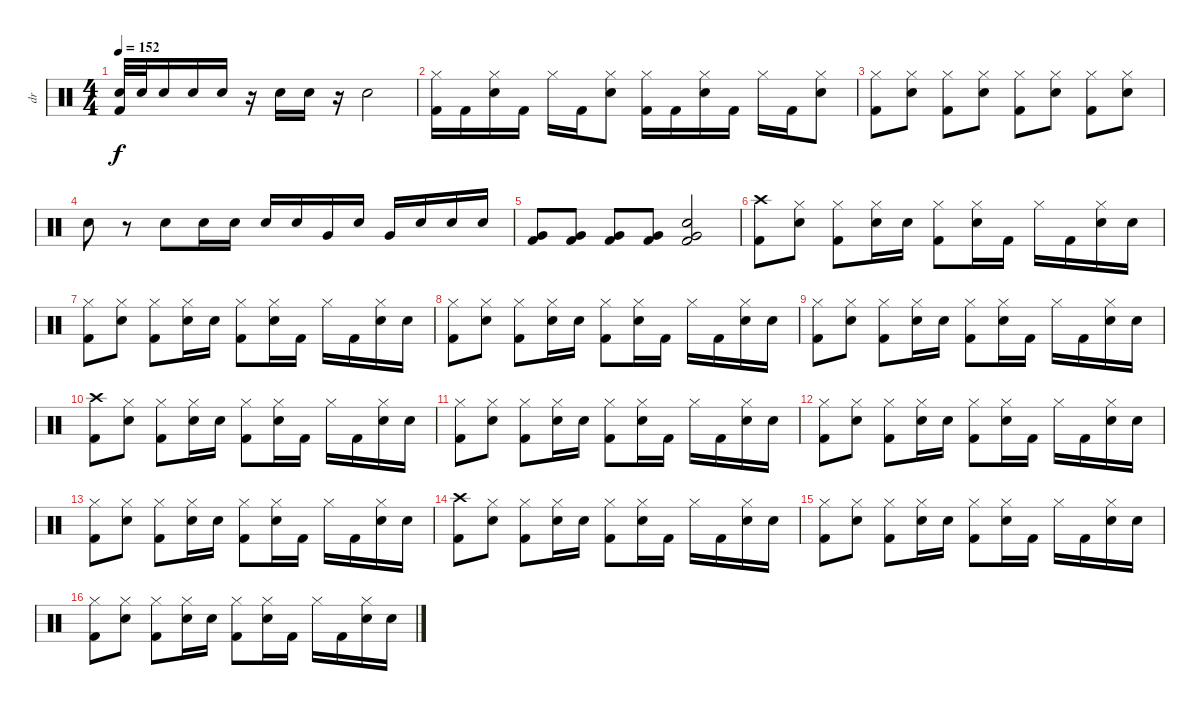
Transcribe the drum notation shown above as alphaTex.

\track ("dr" "dr") {instrument percussion}
\staff {score}
\articulation defaults
\ts (4 4)
\tempo 152
\clef neutral
\ks c
("Electric Snare (hit)" "Kick (hit) 2").32{dy f} "Electric Snare (hit)".32 "Electric Snare (hit)".16 "Electric Snare (hit)".16 "Electric Snare (hit)".16 r.16 "Electric Snare (hit)".16 "Electric Snare (hit)".16 r.16 "Electric Snare (hit)".2 |
("Hi-Hat (closed)" "Kick (hit) 2").16 "Kick (hit) 2".16 ("Hi-Hat (closed)" "Electric Snare (hit)").16 "Kick (hit) 2".16 "Hi-Hat (closed)".16 "Kick (hit) 2".16 ("Hi-Hat (closed)" "Electric Snare (hit)").8 ("Hi-Hat (closed)" "Kick (hit) 2").16 "Kick (hit) 2".16 ("Hi-Hat (closed)" "Electric Snare (hit)").16 "Kick (hit) 2".16 "Hi-Hat (closed)".16 "Kick (hit) 2".16 ("Hi-Hat (closed)" "Electric Snare (hit)").8 |
("Hi-Hat (closed)" "Kick (hit) 2").8 ("Hi-Hat (closed)" "Electric Snare (hit)").8 ("Hi-Hat (closed)" "Kick (hit) 2").8 ("Hi-Hat (closed)" "Electric Snare (hit)").8 ("Hi-Hat (closed)" "Kick (hit) 2").8 ("Hi-Hat (closed)" "Electric Snare (hit)").8 ("Hi-Hat (closed)" "Kick (hit) 2").8 ("Hi-Hat (closed)" "Electric Snare (hit)").8 |
"Electric Snare (hit)".8 r.8 "Electric Snare (hit)".8 "Electric Snare (hit)".16 "Electric Snare (hit)".16 "Electric Snare (hit)".16 "Electric Snare (hit)".16 "Very Low Tom (hit)".16 "Electric Snare (hit)".16 "Very Low Tom (hit)".16 "Electric Snare (hit)".16 "Electric Snare (hit)".16 "Electric Snare (hit)".16 |
("Very Low Tom (hit)" "Kick (hit) 2").8 ("Very Low Tom (hit)" "Kick (hit) 2").8 ("Very Low Tom (hit)" "Kick (hit) 2").8 ("Very Low Tom (hit)" "Kick (hit) 2").8 ("Kick (hit) 2" "Very Low Tom (hit)" "Electric Snare (hit)").2 |
("Crash high (hit)" "Kick (hit) 2").8 ("Hi-Hat (closed)" "Electric Snare (hit)").8 ("Hi-Hat (closed)" "Kick (hit) 2").8 ("Hi-Hat (closed)" "Electric Snare (hit)").16 "Electric Snare (hit)".16 ("Hi-Hat (closed)" "Kick (hit) 2").8 ("Hi-Hat (closed)" "Electric Snare (hit)").16 "Kick (hit) 2".16 "Hi-Hat (closed)".16 "Kick (hit) 2".16 ("Hi-Hat (closed)" "Electric Snare (hit)").16 "Electric Snare (hit)".16 |
("Hi-Hat (closed)" "Kick (hit) 2").8 ("Hi-Hat (closed)" "Electric Snare (hit)").8 ("Hi-Hat (closed)" "Kick (hit) 2").8 ("Hi-Hat (closed)" "Electric Snare (hit)").16 "Electric Snare (hit)".16 ("Hi-Hat (closed)" "Kick (hit) 2").8 ("Hi-Hat (closed)" "Electric Snare (hit)").16 "Kick (hit) 2".16 "Hi-Hat (closed)".16 "Kick (hit) 2".16 ("Hi-Hat (closed)" "Electric Snare (hit)").16 "Electric Snare (hit)".16 |
("Hi-Hat (closed)" "Kick (hit) 2").8 ("Hi-Hat (closed)" "Electric Snare (hit)").8 ("Hi-Hat (closed)" "Kick (hit) 2").8 ("Hi-Hat (closed)" "Electric Snare (hit)").16 "Electric Snare (hit)".16 ("Hi-Hat (closed)" "Kick (hit) 2").8 ("Hi-Hat (closed)" "Electric Snare (hit)").16 "Kick (hit) 2".16 "Hi-Hat (closed)".16 "Kick (hit) 2".16 ("Hi-Hat (closed)" "Electric Snare (hit)").16 "Electric Snare (hit)".16 |
("Hi-Hat (closed)" "Kick (hit) 2").8 ("Hi-Hat (closed)" "Electric Snare (hit)").8 ("Hi-Hat (closed)" "Kick (hit) 2").8 ("Hi-Hat (closed)" "Electric Snare (hit)").16 "Electric Snare (hit)".16 ("Hi-Hat (closed)" "Kick (hit) 2").8 ("Hi-Hat (closed)" "Electric Snare (hit)").16 "Kick (hit) 2".16 "Hi-Hat (closed)".16 "Kick (hit) 2".16 ("Hi-Hat (closed)" "Electric Snare (hit)").16 "Electric Snare (hit)".16 |
("Crash high (hit)" "Kick (hit) 2").8 ("Hi-Hat (closed)" "Electric Snare (hit)").8 ("Hi-Hat (closed)" "Kick (hit) 2").8 ("Hi-Hat (closed)" "Electric Snare (hit)").16 "Electric Snare (hit)".16 ("Hi-Hat (closed)" "Kick (hit) 2").8 ("Hi-Hat (closed)" "Electric Snare (hit)").16 "Kick (hit) 2".16 "Hi-Hat (closed)".16 "Kick (hit) 2".16 ("Hi-Hat (closed)" "Electric Snare (hit)").16 "Electric Snare (hit)".16 |
("Hi-Hat (closed)" "Kick (hit) 2").8 ("Hi-Hat (closed)" "Electric Snare (hit)").8 ("Hi-Hat (closed)" "Kick (hit) 2").8 ("Hi-Hat (closed)" "Electric Snare (hit)").16 "Electric Snare (hit)".16 ("Hi-Hat (closed)" "Kick (hit) 2").8 ("Hi-Hat (closed)" "Electric Snare (hit)").16 "Kick (hit) 2".16 "Hi-Hat (closed)".16 "Kick (hit) 2".16 ("Hi-Hat (closed)" "Electric Snare (hit)").16 "Electric Snare (hit)".16 |
("Hi-Hat (closed)" "Kick (hit) 2").8 ("Hi-Hat (closed)" "Electric Snare (hit)").8 ("Hi-Hat (closed)" "Kick (hit) 2").8 ("Hi-Hat (closed)" "Electric Snare (hit)").16 "Electric Snare (hit)".16 ("Hi-Hat (closed)" "Kick (hit) 2").8 ("Hi-Hat (closed)" "Electric Snare (hit)").16 "Kick (hit) 2".16 "Hi-Hat (closed)".16 "Kick (hit) 2".16 ("Hi-Hat (closed)" "Electric Snare (hit)").16 "Electric Snare (hit)".16 |
("Hi-Hat (closed)" "Kick (hit) 2").8 ("Hi-Hat (closed)" "Electric Snare (hit)").8 ("Hi-Hat (closed)" "Kick (hit) 2").8 ("Hi-Hat (closed)" "Electric Snare (hit)").16 "Electric Snare (hit)".16 ("Hi-Hat (closed)" "Kick (hit) 2").8 ("Hi-Hat (closed)" "Electric Snare (hit)").16 "Kick (hit) 2".16 "Hi-Hat (closed)".16 "Kick (hit) 2".16 ("Hi-Hat (closed)" "Electric Snare (hit)").16 "Electric Snare (hit)".16 |
("Crash high (hit)" "Kick (hit) 2").8 ("Hi-Hat (closed)" "Electric Snare (hit)").8 ("Hi-Hat (closed)" "Kick (hit) 2").8 ("Hi-Hat (closed)" "Electric Snare (hit)").16 "Electric Snare (hit)".16 ("Hi-Hat (closed)" "Kick (hit) 2").8 ("Hi-Hat (closed)" "Electric Snare (hit)").16 "Kick (hit) 2".16 "Hi-Hat (closed)".16 "Kick (hit) 2".16 ("Hi-Hat (closed)" "Electric Snare (hit)").16 "Electric Snare (hit)".16 |
("Hi-Hat (closed)" "Kick (hit) 2").8 ("Hi-Hat (closed)" "Electric Snare (hit)").8 ("Hi-Hat (closed)" "Kick (hit) 2").8 ("Hi-Hat (closed)" "Electric Snare (hit)").16 "Electric Snare (hit)".16 ("Hi-Hat (closed)" "Kick (hit) 2").8 ("Hi-Hat (closed)" "Electric Snare (hit)").16 "Kick (hit) 2".16 "Hi-Hat (closed)".16 "Kick (hit) 2".16 ("Hi-Hat (closed)" "Electric Snare (hit)").16 "Electric Snare (hit)".16 |
("Hi-Hat (closed)" "Kick (hit) 2").8 ("Hi-Hat (closed)" "Electric Snare (hit)").8 ("Hi-Hat (closed)" "Kick (hit) 2").8 ("Hi-Hat (closed)" "Electric Snare (hit)").16 "Electric Snare (hit)".16 ("Hi-Hat (closed)" "Kick (hit) 2").8 ("Hi-Hat (closed)" "Electric Snare (hit)").16 "Kick (hit) 2".16 "Hi-Hat (closed)".16 "Kick (hit) 2".16 ("Hi-Hat (closed)" "Electric Snare (hit)").16 "Electric Snare (hit)".16
